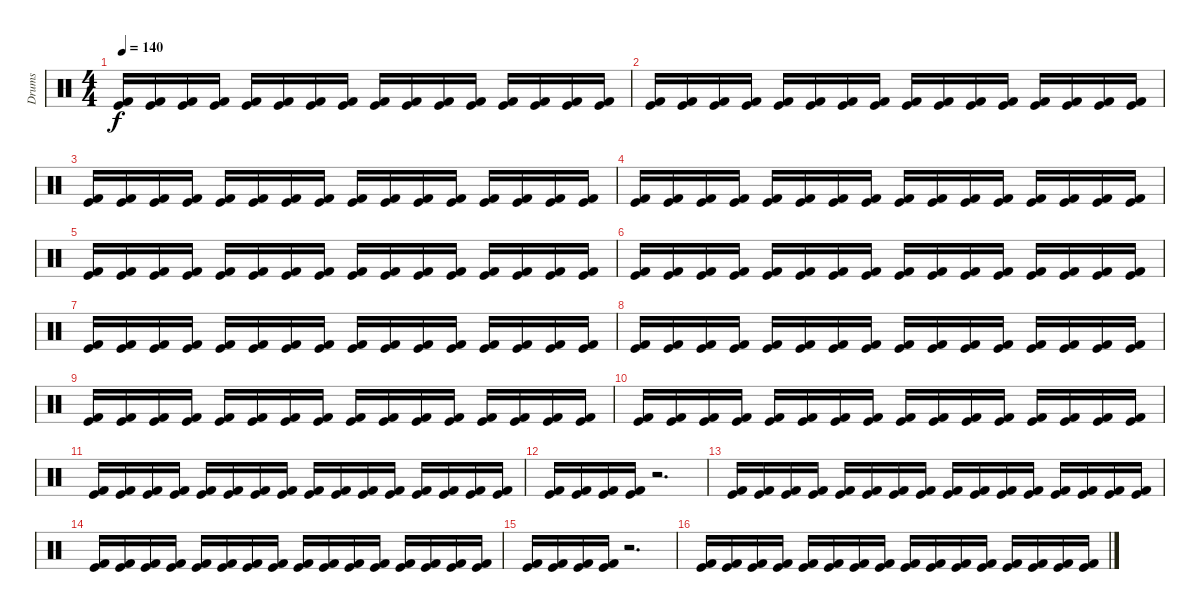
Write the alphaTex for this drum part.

\track ("Drums" "Drums") {instrument percussion}
\staff {score}
\articulation defaults
\ts (4 4)
\tempo 140
\clef neutral
\ks c
("Kick (hit) 2" "Kick (hit)").16{dy f} ("Kick (hit) 2" "Kick (hit)").16 ("Kick (hit) 2" "Kick (hit)").16 ("Kick (hit) 2" "Kick (hit)").16 ("Kick (hit) 2" "Kick (hit)").16 ("Kick (hit) 2" "Kick (hit)").16 ("Kick (hit) 2" "Kick (hit)").16 ("Kick (hit) 2" "Kick (hit)").16 ("Kick (hit) 2" "Kick (hit)").16 ("Kick (hit) 2" "Kick (hit)").16 ("Kick (hit) 2" "Kick (hit)").16 ("Kick (hit) 2" "Kick (hit)").16 ("Kick (hit) 2" "Kick (hit)").16 ("Kick (hit) 2" "Kick (hit)").16 ("Kick (hit) 2" "Kick (hit)").16 ("Kick (hit) 2" "Kick (hit)").16 |
("Kick (hit) 2" "Kick (hit)").16 ("Kick (hit) 2" "Kick (hit)").16 ("Kick (hit) 2" "Kick (hit)").16 ("Kick (hit) 2" "Kick (hit)").16 ("Kick (hit) 2" "Kick (hit)").16 ("Kick (hit) 2" "Kick (hit)").16 ("Kick (hit) 2" "Kick (hit)").16 ("Kick (hit) 2" "Kick (hit)").16 ("Kick (hit) 2" "Kick (hit)").16 ("Kick (hit) 2" "Kick (hit)").16 ("Kick (hit) 2" "Kick (hit)").16 ("Kick (hit) 2" "Kick (hit)").16 ("Kick (hit) 2" "Kick (hit)").16 ("Kick (hit) 2" "Kick (hit)").16 ("Kick (hit) 2" "Kick (hit)").16 ("Kick (hit) 2" "Kick (hit)").16 |
("Kick (hit) 2" "Kick (hit)").16 ("Kick (hit) 2" "Kick (hit)").16 ("Kick (hit) 2" "Kick (hit)").16 ("Kick (hit) 2" "Kick (hit)").16 ("Kick (hit) 2" "Kick (hit)").16 ("Kick (hit) 2" "Kick (hit)").16 ("Kick (hit) 2" "Kick (hit)").16 ("Kick (hit) 2" "Kick (hit)").16 ("Kick (hit) 2" "Kick (hit)").16 ("Kick (hit) 2" "Kick (hit)").16 ("Kick (hit) 2" "Kick (hit)").16 ("Kick (hit) 2" "Kick (hit)").16 ("Kick (hit) 2" "Kick (hit)").16 ("Kick (hit) 2" "Kick (hit)").16 ("Kick (hit) 2" "Kick (hit)").16 ("Kick (hit) 2" "Kick (hit)").16 |
("Kick (hit) 2" "Kick (hit)").16 ("Kick (hit) 2" "Kick (hit)").16 ("Kick (hit) 2" "Kick (hit)").16 ("Kick (hit) 2" "Kick (hit)").16 ("Kick (hit) 2" "Kick (hit)").16 ("Kick (hit) 2" "Kick (hit)").16 ("Kick (hit) 2" "Kick (hit)").16 ("Kick (hit) 2" "Kick (hit)").16 ("Kick (hit) 2" "Kick (hit)").16 ("Kick (hit) 2" "Kick (hit)").16 ("Kick (hit) 2" "Kick (hit)").16 ("Kick (hit) 2" "Kick (hit)").16 ("Kick (hit) 2" "Kick (hit)").16 ("Kick (hit) 2" "Kick (hit)").16 ("Kick (hit) 2" "Kick (hit)").16 ("Kick (hit) 2" "Kick (hit)").16 |
("Kick (hit) 2" "Kick (hit)").16 ("Kick (hit) 2" "Kick (hit)").16 ("Kick (hit) 2" "Kick (hit)").16 ("Kick (hit) 2" "Kick (hit)").16 ("Kick (hit) 2" "Kick (hit)").16 ("Kick (hit) 2" "Kick (hit)").16 ("Kick (hit) 2" "Kick (hit)").16 ("Kick (hit) 2" "Kick (hit)").16 ("Kick (hit) 2" "Kick (hit)").16 ("Kick (hit) 2" "Kick (hit)").16 ("Kick (hit) 2" "Kick (hit)").16 ("Kick (hit) 2" "Kick (hit)").16 ("Kick (hit) 2" "Kick (hit)").16 ("Kick (hit) 2" "Kick (hit)").16 ("Kick (hit) 2" "Kick (hit)").16 ("Kick (hit) 2" "Kick (hit)").16 |
("Kick (hit) 2" "Kick (hit)").16 ("Kick (hit) 2" "Kick (hit)").16 ("Kick (hit) 2" "Kick (hit)").16 ("Kick (hit) 2" "Kick (hit)").16 ("Kick (hit) 2" "Kick (hit)").16 ("Kick (hit) 2" "Kick (hit)").16 ("Kick (hit) 2" "Kick (hit)").16 ("Kick (hit) 2" "Kick (hit)").16 ("Kick (hit) 2" "Kick (hit)").16 ("Kick (hit) 2" "Kick (hit)").16 ("Kick (hit) 2" "Kick (hit)").16 ("Kick (hit) 2" "Kick (hit)").16 ("Kick (hit) 2" "Kick (hit)").16 ("Kick (hit) 2" "Kick (hit)").16 ("Kick (hit) 2" "Kick (hit)").16 ("Kick (hit) 2" "Kick (hit)").16 |
("Kick (hit) 2" "Kick (hit)").16 ("Kick (hit) 2" "Kick (hit)").16 ("Kick (hit) 2" "Kick (hit)").16 ("Kick (hit) 2" "Kick (hit)").16 ("Kick (hit) 2" "Kick (hit)").16 ("Kick (hit) 2" "Kick (hit)").16 ("Kick (hit) 2" "Kick (hit)").16 ("Kick (hit) 2" "Kick (hit)").16 ("Kick (hit) 2" "Kick (hit)").16 ("Kick (hit) 2" "Kick (hit)").16 ("Kick (hit) 2" "Kick (hit)").16 ("Kick (hit) 2" "Kick (hit)").16 ("Kick (hit) 2" "Kick (hit)").16 ("Kick (hit) 2" "Kick (hit)").16 ("Kick (hit) 2" "Kick (hit)").16 ("Kick (hit) 2" "Kick (hit)").16 |
("Kick (hit) 2" "Kick (hit)").16 ("Kick (hit) 2" "Kick (hit)").16 ("Kick (hit) 2" "Kick (hit)").16 ("Kick (hit) 2" "Kick (hit)").16 ("Kick (hit) 2" "Kick (hit)").16 ("Kick (hit) 2" "Kick (hit)").16 ("Kick (hit) 2" "Kick (hit)").16 ("Kick (hit) 2" "Kick (hit)").16 ("Kick (hit) 2" "Kick (hit)").16 ("Kick (hit) 2" "Kick (hit)").16 ("Kick (hit) 2" "Kick (hit)").16 ("Kick (hit) 2" "Kick (hit)").16 ("Kick (hit) 2" "Kick (hit)").16 ("Kick (hit) 2" "Kick (hit)").16 ("Kick (hit) 2" "Kick (hit)").16 ("Kick (hit) 2" "Kick (hit)").16 |
("Kick (hit) 2" "Kick (hit)").16 ("Kick (hit) 2" "Kick (hit)").16 ("Kick (hit) 2" "Kick (hit)").16 ("Kick (hit) 2" "Kick (hit)").16 ("Kick (hit) 2" "Kick (hit)").16 ("Kick (hit) 2" "Kick (hit)").16 ("Kick (hit) 2" "Kick (hit)").16 ("Kick (hit) 2" "Kick (hit)").16 ("Kick (hit) 2" "Kick (hit)").16 ("Kick (hit) 2" "Kick (hit)").16 ("Kick (hit) 2" "Kick (hit)").16 ("Kick (hit) 2" "Kick (hit)").16 ("Kick (hit) 2" "Kick (hit)").16 ("Kick (hit) 2" "Kick (hit)").16 ("Kick (hit) 2" "Kick (hit)").16 ("Kick (hit) 2" "Kick (hit)").16 |
("Kick (hit) 2" "Kick (hit)").16 ("Kick (hit) 2" "Kick (hit)").16 ("Kick (hit) 2" "Kick (hit)").16 ("Kick (hit) 2" "Kick (hit)").16 ("Kick (hit) 2" "Kick (hit)").16 ("Kick (hit) 2" "Kick (hit)").16 ("Kick (hit) 2" "Kick (hit)").16 ("Kick (hit) 2" "Kick (hit)").16 ("Kick (hit) 2" "Kick (hit)").16 ("Kick (hit) 2" "Kick (hit)").16 ("Kick (hit) 2" "Kick (hit)").16 ("Kick (hit) 2" "Kick (hit)").16 ("Kick (hit) 2" "Kick (hit)").16 ("Kick (hit) 2" "Kick (hit)").16 ("Kick (hit) 2" "Kick (hit)").16 ("Kick (hit) 2" "Kick (hit)").16 |
("Kick (hit) 2" "Kick (hit)").16 ("Kick (hit) 2" "Kick (hit)").16 ("Kick (hit) 2" "Kick (hit)").16 ("Kick (hit) 2" "Kick (hit)").16 ("Kick (hit) 2" "Kick (hit)").16 ("Kick (hit) 2" "Kick (hit)").16 ("Kick (hit) 2" "Kick (hit)").16 ("Kick (hit) 2" "Kick (hit)").16 ("Kick (hit) 2" "Kick (hit)").16 ("Kick (hit) 2" "Kick (hit)").16 ("Kick (hit) 2" "Kick (hit)").16 ("Kick (hit) 2" "Kick (hit)").16 ("Kick (hit) 2" "Kick (hit)").16 ("Kick (hit) 2" "Kick (hit)").16 ("Kick (hit) 2" "Kick (hit)").16 ("Kick (hit) 2" "Kick (hit)").16 |
("Kick (hit) 2" "Kick (hit)").16 ("Kick (hit) 2" "Kick (hit)").16 ("Kick (hit) 2" "Kick (hit)").16 ("Kick (hit) 2" "Kick (hit)").16 r.2{d} |
("Kick (hit) 2" "Kick (hit)").16 ("Kick (hit) 2" "Kick (hit)").16 ("Kick (hit) 2" "Kick (hit)").16 ("Kick (hit) 2" "Kick (hit)").16 ("Kick (hit) 2" "Kick (hit)").16 ("Kick (hit) 2" "Kick (hit)").16 ("Kick (hit) 2" "Kick (hit)").16 ("Kick (hit) 2" "Kick (hit)").16 ("Kick (hit) 2" "Kick (hit)").16 ("Kick (hit) 2" "Kick (hit)").16 ("Kick (hit) 2" "Kick (hit)").16 ("Kick (hit) 2" "Kick (hit)").16 ("Kick (hit) 2" "Kick (hit)").16 ("Kick (hit) 2" "Kick (hit)").16 ("Kick (hit) 2" "Kick (hit)").16 ("Kick (hit) 2" "Kick (hit)").16 |
("Kick (hit) 2" "Kick (hit)").16 ("Kick (hit) 2" "Kick (hit)").16 ("Kick (hit) 2" "Kick (hit)").16 ("Kick (hit) 2" "Kick (hit)").16 ("Kick (hit) 2" "Kick (hit)").16 ("Kick (hit) 2" "Kick (hit)").16 ("Kick (hit) 2" "Kick (hit)").16 ("Kick (hit) 2" "Kick (hit)").16 ("Kick (hit) 2" "Kick (hit)").16 ("Kick (hit) 2" "Kick (hit)").16 ("Kick (hit) 2" "Kick (hit)").16 ("Kick (hit) 2" "Kick (hit)").16 ("Kick (hit) 2" "Kick (hit)").16 ("Kick (hit) 2" "Kick (hit)").16 ("Kick (hit) 2" "Kick (hit)").16 ("Kick (hit) 2" "Kick (hit)").16 |
("Kick (hit) 2" "Kick (hit)").16 ("Kick (hit) 2" "Kick (hit)").16 ("Kick (hit) 2" "Kick (hit)").16 ("Kick (hit) 2" "Kick (hit)").16 r.2{d} |
("Kick (hit) 2" "Kick (hit)").16 ("Kick (hit) 2" "Kick (hit)").16 ("Kick (hit) 2" "Kick (hit)").16 ("Kick (hit) 2" "Kick (hit)").16 ("Kick (hit) 2" "Kick (hit)").16 ("Kick (hit) 2" "Kick (hit)").16 ("Kick (hit) 2" "Kick (hit)").16 ("Kick (hit) 2" "Kick (hit)").16 ("Kick (hit) 2" "Kick (hit)").16 ("Kick (hit) 2" "Kick (hit)").16 ("Kick (hit) 2" "Kick (hit)").16 ("Kick (hit) 2" "Kick (hit)").16 ("Kick (hit) 2" "Kick (hit)").16 ("Kick (hit) 2" "Kick (hit)").16 ("Kick (hit) 2" "Kick (hit)").16 ("Kick (hit) 2" "Kick (hit)").16
